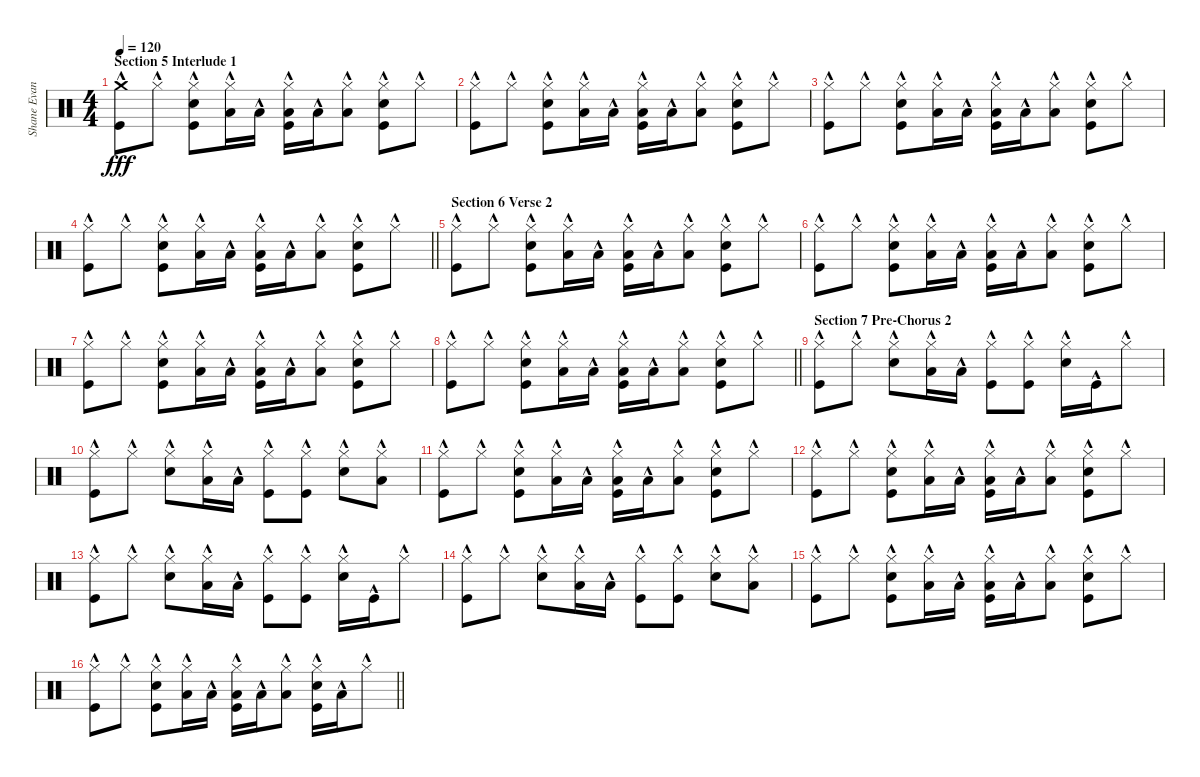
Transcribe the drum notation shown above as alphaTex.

\track ("Shane Evans" "Shane Evan") {instrument percussion}
\staff {score}
\articulation defaults
\ts (4 4)
\section ("" "Section 5 Interlude 1")
\tempo 120
\clef neutral
\ks c
("Crash medium (hit)"{hac} "Kick (hit)"{hac}).8{dy fff} "Hi-Hat (closed)"{hac}.8 ("Hi-Hat (closed)"{hac} "Electric Snare (hit)"{hac} "Kick (hit)"{hac}).8 ("Hi-Hat (closed)"{hac} "Low Tom (hit)"{hac}).16 "Low Tom (hit)"{hac}.16 ("Hi-Hat (closed)"{hac} "Low Tom (hit)"{hac} "Kick (hit)"{hac}).16 "Low Tom (hit)"{hac}.16 ("Hi-Hat (closed)"{hac} "Low Tom (hit)"{hac}).8 ("Hi-Hat (closed)"{hac} "Electric Snare (hit)"{hac} "Kick (hit)"{hac}).8 "Hi-Hat (closed)"{hac}.8 |
("Hi-Hat (closed)"{hac} "Kick (hit)"{hac}).8 "Hi-Hat (closed)"{hac}.8 ("Hi-Hat (closed)"{hac} "Electric Snare (hit)"{hac} "Kick (hit)"{hac}).8 ("Hi-Hat (closed)"{hac} "Low Tom (hit)"{hac}).16 "Low Tom (hit)"{hac}.16 ("Hi-Hat (closed)"{hac} "Low Tom (hit)"{hac} "Kick (hit)"{hac}).16 "Low Tom (hit)"{hac}.16 ("Hi-Hat (closed)"{hac} "Low Tom (hit)"{hac}).8 ("Hi-Hat (closed)"{hac} "Electric Snare (hit)"{hac} "Kick (hit)"{hac}).8 "Hi-Hat (closed)"{hac}.8 |
("Hi-Hat (closed)"{hac} "Kick (hit)"{hac}).8 "Hi-Hat (closed)"{hac}.8 ("Hi-Hat (closed)"{hac} "Electric Snare (hit)"{hac} "Kick (hit)"{hac}).8 ("Hi-Hat (closed)"{hac} "Low Tom (hit)"{hac}).16 "Low Tom (hit)"{hac}.16 ("Hi-Hat (closed)"{hac} "Low Tom (hit)"{hac} "Kick (hit)"{hac}).16 "Low Tom (hit)"{hac}.16 ("Hi-Hat (closed)"{hac} "Low Tom (hit)"{hac}).8 ("Hi-Hat (closed)"{hac} "Electric Snare (hit)"{hac} "Kick (hit)"{hac}).8 "Hi-Hat (closed)"{hac}.8 |
\barLineRight lightlight
("Hi-Hat (closed)"{hac} "Kick (hit)"{hac}).8 "Hi-Hat (closed)"{hac}.8 ("Hi-Hat (closed)"{hac} "Electric Snare (hit)"{hac} "Kick (hit)"{hac}).8 ("Hi-Hat (closed)"{hac} "Low Tom (hit)"{hac}).16 "Low Tom (hit)"{hac}.16 ("Hi-Hat (closed)"{hac} "Low Tom (hit)"{hac} "Kick (hit)"{hac}).16 "Low Tom (hit)"{hac}.16 ("Hi-Hat (closed)"{hac} "Low Tom (hit)"{hac}).8 ("Hi-Hat (closed)"{hac} "Electric Snare (hit)"{hac} "Kick (hit)"{hac}).8 "Hi-Hat (closed)"{hac}.8 |
\section ("" "Section 6 Verse 2")
("Hi-Hat (closed)"{hac} "Kick (hit)"{hac}).8 "Hi-Hat (closed)"{hac}.8 ("Hi-Hat (closed)"{hac} "Electric Snare (hit)"{hac} "Kick (hit)"{hac}).8 ("Hi-Hat (closed)"{hac} "Low Tom (hit)"{hac}).16 "Low Tom (hit)"{hac}.16 ("Hi-Hat (closed)"{hac} "Low Tom (hit)"{hac} "Kick (hit)"{hac}).16 "Low Tom (hit)"{hac}.16 ("Hi-Hat (closed)"{hac} "Low Tom (hit)"{hac}).8 ("Hi-Hat (closed)"{hac} "Electric Snare (hit)"{hac} "Kick (hit)"{hac}).8 "Hi-Hat (closed)"{hac}.8 |
("Hi-Hat (closed)"{hac} "Kick (hit)"{hac}).8 "Hi-Hat (closed)"{hac}.8 ("Hi-Hat (closed)"{hac} "Electric Snare (hit)"{hac} "Kick (hit)"{hac}).8 ("Hi-Hat (closed)"{hac} "Low Tom (hit)"{hac}).16 "Low Tom (hit)"{hac}.16 ("Hi-Hat (closed)"{hac} "Low Tom (hit)"{hac} "Kick (hit)"{hac}).16 "Low Tom (hit)"{hac}.16 ("Hi-Hat (closed)"{hac} "Low Tom (hit)"{hac}).8 ("Hi-Hat (closed)"{hac} "Electric Snare (hit)"{hac} "Kick (hit)"{hac}).8 "Hi-Hat (closed)"{hac}.8 |
("Hi-Hat (closed)"{hac} "Kick (hit)"{hac}).8 "Hi-Hat (closed)"{hac}.8 ("Hi-Hat (closed)"{hac} "Electric Snare (hit)"{hac} "Kick (hit)"{hac}).8 ("Hi-Hat (closed)"{hac} "Low Tom (hit)"{hac}).16 "Low Tom (hit)"{hac}.16 ("Hi-Hat (closed)"{hac} "Low Tom (hit)"{hac} "Kick (hit)"{hac}).16 "Low Tom (hit)"{hac}.16 ("Hi-Hat (closed)"{hac} "Low Tom (hit)"{hac}).8 ("Hi-Hat (closed)"{hac} "Electric Snare (hit)"{hac} "Kick (hit)"{hac}).8 "Hi-Hat (closed)"{hac}.8 |
\barLineRight lightlight
("Hi-Hat (closed)"{hac} "Kick (hit)"{hac}).8 "Hi-Hat (closed)"{hac}.8 ("Hi-Hat (closed)"{hac} "Electric Snare (hit)"{hac} "Kick (hit)"{hac}).8 ("Hi-Hat (closed)"{hac} "Low Tom (hit)"{hac}).16 "Low Tom (hit)"{hac}.16 ("Hi-Hat (closed)"{hac} "Low Tom (hit)"{hac} "Kick (hit)"{hac}).16 "Low Tom (hit)"{hac}.16 ("Hi-Hat (closed)"{hac} "Low Tom (hit)"{hac}).8 ("Hi-Hat (closed)"{hac} "Electric Snare (hit)"{hac} "Kick (hit)"{hac}).8 "Hi-Hat (closed)"{hac}.8 |
\section ("" "Section 7 Pre-Chorus 2")
("Hi-Hat (closed)"{hac} "Kick (hit)"{hac}).8 "Hi-Hat (closed)"{hac}.8 ("Hi-Hat (closed)"{hac} "Electric Snare (hit)"{hac}).8 ("Hi-Hat (closed)"{hac} "Low Tom (hit)"{hac}).16 "Low Tom (hit)"{hac}.16 ("Hi-Hat (closed)"{hac} "Kick (hit)"{hac}).8 ("Hi-Hat (closed)"{hac} "Kick (hit)"{hac}).8 ("Hi-Hat (closed)"{hac} "Electric Snare (hit)"{hac}).16 "Kick (hit)"{hac}.16 "Hi-Hat (closed)"{hac}.8 |
("Hi-Hat (closed)"{hac} "Kick (hit)"{hac}).8 "Hi-Hat (closed)"{hac}.8 ("Hi-Hat (closed)"{hac} "Electric Snare (hit)"{hac}).8 ("Hi-Hat (closed)"{hac} "Low Tom (hit)"{hac}).16 "Low Tom (hit)"{hac}.16 ("Hi-Hat (closed)"{hac} "Kick (hit)"{hac}).8 ("Hi-Hat (closed)"{hac} "Kick (hit)"{hac}).8 ("Hi-Hat (closed)"{hac} "Electric Snare (hit)"{hac}).8 ("Hi-Hat (closed)"{hac} "Low Tom (hit)"{hac}).8 |
("Hi-Hat (closed)"{hac} "Kick (hit)"{hac}).8 "Hi-Hat (closed)"{hac}.8 ("Hi-Hat (closed)"{hac} "Electric Snare (hit)"{hac} "Kick (hit)"{hac}).8 ("Hi-Hat (closed)"{hac} "Low Tom (hit)"{hac}).16 "Low Tom (hit)"{hac}.16 ("Hi-Hat (closed)"{hac} "Low Tom (hit)"{hac} "Kick (hit)"{hac}).16 "Low Tom (hit)"{hac}.16 ("Hi-Hat (closed)"{hac} "Low Tom (hit)"{hac}).8 ("Hi-Hat (closed)"{hac} "Electric Snare (hit)"{hac} "Kick (hit)"{hac}).8 "Hi-Hat (closed)"{hac}.8 |
("Hi-Hat (closed)"{hac} "Kick (hit)"{hac}).8 "Hi-Hat (closed)"{hac}.8 ("Hi-Hat (closed)"{hac} "Electric Snare (hit)"{hac} "Kick (hit)"{hac}).8 ("Hi-Hat (closed)"{hac} "Low Tom (hit)"{hac}).16 "Low Tom (hit)"{hac}.16 ("Hi-Hat (closed)"{hac} "Low Tom (hit)"{hac} "Kick (hit)"{hac}).16 "Low Tom (hit)"{hac}.16 ("Hi-Hat (closed)"{hac} "Low Tom (hit)"{hac}).8 ("Hi-Hat (closed)"{hac} "Electric Snare (hit)"{hac} "Kick (hit)"{hac}).8 "Hi-Hat (closed)"{hac}.8 |
("Hi-Hat (closed)"{hac} "Kick (hit)"{hac}).8 "Hi-Hat (closed)"{hac}.8 ("Hi-Hat (closed)"{hac} "Electric Snare (hit)"{hac}).8 ("Hi-Hat (closed)"{hac} "Low Tom (hit)"{hac}).16 "Low Tom (hit)"{hac}.16 ("Hi-Hat (closed)"{hac} "Kick (hit)"{hac}).8 ("Hi-Hat (closed)"{hac} "Kick (hit)"{hac}).8 ("Hi-Hat (closed)"{hac} "Electric Snare (hit)"{hac}).16 "Kick (hit)"{hac}.16 "Hi-Hat (closed)"{hac}.8 |
("Hi-Hat (closed)"{hac} "Kick (hit)"{hac}).8 "Hi-Hat (closed)"{hac}.8 ("Hi-Hat (closed)"{hac} "Electric Snare (hit)"{hac}).8 ("Hi-Hat (closed)"{hac} "Low Tom (hit)"{hac}).16 "Low Tom (hit)"{hac}.16 ("Hi-Hat (closed)"{hac} "Kick (hit)"{hac}).8 ("Hi-Hat (closed)"{hac} "Kick (hit)"{hac}).8 ("Hi-Hat (closed)"{hac} "Electric Snare (hit)"{hac}).8 ("Hi-Hat (closed)"{hac} "Low Tom (hit)"{hac}).8 |
("Hi-Hat (closed)"{hac} "Kick (hit)"{hac}).8 "Hi-Hat (closed)"{hac}.8 ("Hi-Hat (closed)"{hac} "Electric Snare (hit)"{hac} "Kick (hit)"{hac}).8 ("Hi-Hat (closed)"{hac} "Low Tom (hit)"{hac}).16 "Low Tom (hit)"{hac}.16 ("Hi-Hat (closed)"{hac} "Low Tom (hit)"{hac} "Kick (hit)"{hac}).16 "Low Tom (hit)"{hac}.16 ("Hi-Hat (closed)"{hac} "Low Tom (hit)"{hac}).8 ("Hi-Hat (closed)"{hac} "Electric Snare (hit)"{hac} "Kick (hit)"{hac}).8 "Hi-Hat (closed)"{hac}.8 |
\barLineRight lightlight
("Hi-Hat (closed)"{hac} "Kick (hit)"{hac}).8 "Hi-Hat (closed)"{hac}.8 ("Hi-Hat (closed)"{hac} "Electric Snare (hit)"{hac} "Kick (hit)"{hac}).8 ("Hi-Hat (closed)"{hac} "Low Tom (hit)"{hac}).16 "Low Tom (hit)"{hac}.16 ("Hi-Hat (closed)"{hac} "Low Tom (hit)"{hac} "Kick (hit)"{hac}).16 "Low Tom (hit)"{hac}.16 ("Hi-Hat (closed)"{hac} "Low Tom (hit)"{hac}).8 ("Hi-Hat (closed)"{hac} "Electric Snare (hit)"{hac} "Kick (hit)"{hac}).16 "Low Tom (hit)"{hac}.16 "Hi-Hat (closed)"{hac}.8
